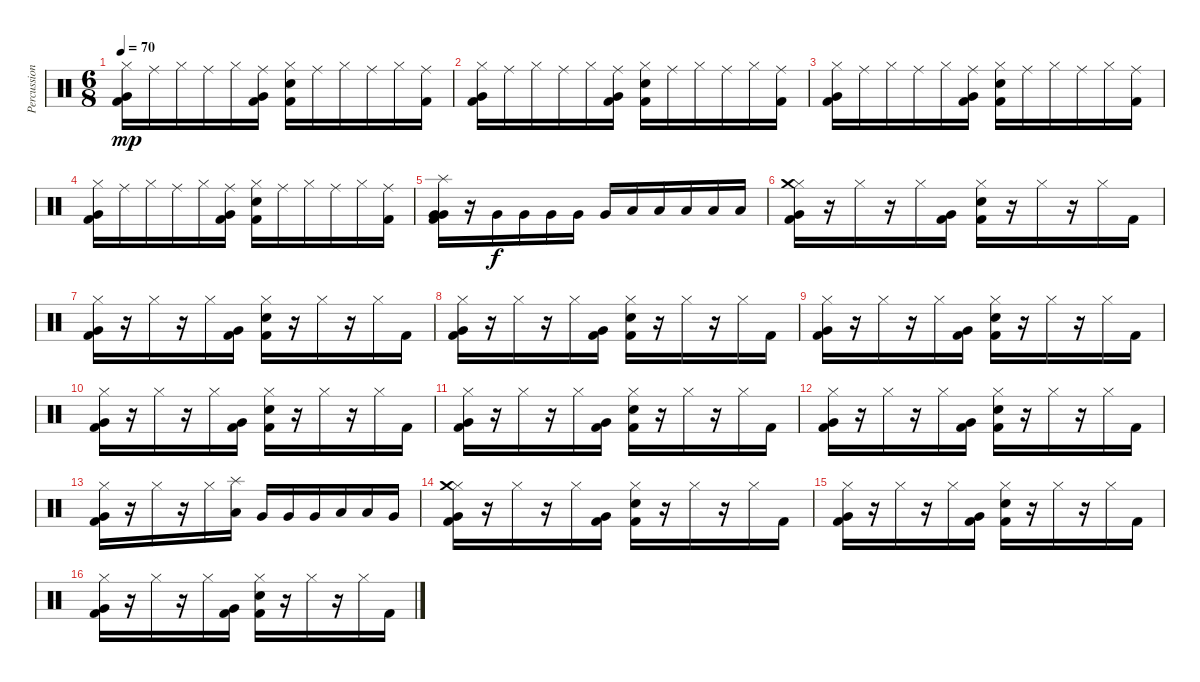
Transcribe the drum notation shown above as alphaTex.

\track ("Percussion" "Percussion") {instrument percussion}
\staff {score}
\articulation defaults
\ts (6 8)
\tempo 70
\clef neutral
\ks c
("Very Low Tom (hit)" "Hi-Hat (closed)" "Kick (hit) 2").16{dy mp} "Ride (middle)".16 "Hi-Hat (closed)".16 "Ride (middle)".16 "Hi-Hat (closed)".16 ("Ride (middle)" "Kick (hit) 2" "Very Low Tom (hit)").16 ("Hi-Hat (closed)" "Electric Snare (hit)" "Kick (hit) 2").16 "Ride (middle)".16 "Hi-Hat (closed)".16 "Ride (middle)".16 "Hi-Hat (closed)".16 ("Ride (middle)" "Kick (hit) 2").16 |
("Very Low Tom (hit)" "Hi-Hat (closed)" "Kick (hit) 2").16 "Ride (middle)".16 "Hi-Hat (closed)".16 "Ride (middle)".16 "Hi-Hat (closed)".16 ("Ride (middle)" "Kick (hit) 2" "Very Low Tom (hit)").16 ("Hi-Hat (closed)" "Electric Snare (hit)" "Kick (hit) 2").16 "Ride (middle)".16 "Hi-Hat (closed)".16 "Ride (middle)".16 "Hi-Hat (closed)".16 ("Ride (middle)" "Kick (hit) 2").16 |
("Very Low Tom (hit)" "Hi-Hat (closed)" "Kick (hit) 2").16 "Ride (middle)".16 "Hi-Hat (closed)".16 "Ride (middle)".16 "Hi-Hat (closed)".16 ("Ride (middle)" "Kick (hit) 2" "Very Low Tom (hit)").16 ("Hi-Hat (closed)" "Electric Snare (hit)" "Kick (hit) 2").16 "Ride (middle)".16 "Hi-Hat (closed)".16 "Ride (middle)".16 "Hi-Hat (closed)".16 ("Ride (middle)" "Kick (hit) 2").16 |
("Very Low Tom (hit)" "Hi-Hat (closed)" "Kick (hit) 2").16 "Ride (middle)".16 "Hi-Hat (closed)".16 "Ride (middle)".16 "Hi-Hat (closed)".16 ("Ride (middle)" "Kick (hit) 2" "Very Low Tom (hit)").16 ("Hi-Hat (closed)" "Electric Snare (hit)" "Kick (hit) 2").16 "Ride (middle)".16 "Hi-Hat (closed)".16 "Ride (middle)".16 "Hi-Hat (closed)".16 ("Ride (middle)" "Kick (hit) 2").16 |
("Very Low Tom (hit)" "Very Low Tom (hit)" "Splash (hit)" "Kick (hit) 2").16 r.16 "Very Low Tom (hit)".16{dy f} "Very Low Tom (hit)".16 "Very Low Tom (hit)".16 "Very Low Tom (hit)".16 "Very Low Tom (hit)".16 "Low Floor Tom (hit)".16 "Low Floor Tom (hit)".16 "Low Floor Tom (hit)".16 "Low Floor Tom (hit)".16 "Low Floor Tom (hit)".16 |
("Very Low Tom (hit)" "Hi-Hat (closed)" "Crash medium (hit)" "Kick (hit) 2").16 r.16 "Hi-Hat (closed)".16 r.16 "Hi-Hat (closed)".16 ("Kick (hit) 2" "Very Low Tom (hit)").16 ("Hi-Hat (closed)" "Electric Snare (hit)" "Kick (hit) 2").16 r.16 "Hi-Hat (closed)".16 r.16 "Hi-Hat (closed)".16 "Kick (hit) 2".16 |
("Very Low Tom (hit)" "Hi-Hat (closed)" "Kick (hit) 2").16 r.16 "Hi-Hat (closed)".16 r.16 "Hi-Hat (closed)".16 ("Kick (hit) 2" "Very Low Tom (hit)").16 ("Hi-Hat (closed)" "Electric Snare (hit)" "Kick (hit) 2").16 r.16 "Hi-Hat (closed)".16 r.16 "Hi-Hat (closed)".16 "Kick (hit) 2".16 |
("Very Low Tom (hit)" "Hi-Hat (closed)" "Kick (hit) 2").16 r.16 "Hi-Hat (closed)".16 r.16 "Hi-Hat (closed)".16 ("Kick (hit) 2" "Very Low Tom (hit)").16 ("Hi-Hat (closed)" "Electric Snare (hit)" "Kick (hit) 2").16 r.16 "Hi-Hat (closed)".16 r.16 "Hi-Hat (closed)".16 "Kick (hit) 2".16 |
("Very Low Tom (hit)" "Hi-Hat (closed)" "Kick (hit) 2").16 r.16 "Hi-Hat (closed)".16 r.16 "Hi-Hat (closed)".16 ("Kick (hit) 2" "Very Low Tom (hit)").16 ("Hi-Hat (closed)" "Electric Snare (hit)" "Kick (hit) 2").16 r.16 "Hi-Hat (closed)".16 r.16 "Hi-Hat (closed)".16 "Kick (hit) 2".16 |
("Very Low Tom (hit)" "Hi-Hat (closed)" "Kick (hit) 2").16 r.16 "Hi-Hat (closed)".16 r.16 "Hi-Hat (closed)".16 ("Kick (hit) 2" "Very Low Tom (hit)").16 ("Hi-Hat (closed)" "Electric Snare (hit)" "Kick (hit) 2").16 r.16 "Hi-Hat (closed)".16 r.16 "Hi-Hat (closed)".16 "Kick (hit) 2".16 |
("Very Low Tom (hit)" "Hi-Hat (closed)" "Kick (hit) 2").16 r.16 "Hi-Hat (closed)".16 r.16 "Hi-Hat (closed)".16 ("Kick (hit) 2" "Very Low Tom (hit)").16 ("Hi-Hat (closed)" "Electric Snare (hit)" "Kick (hit) 2").16 r.16 "Hi-Hat (closed)".16 r.16 "Hi-Hat (closed)".16 "Kick (hit) 2".16 |
("Very Low Tom (hit)" "Hi-Hat (closed)" "Kick (hit) 2").16 r.16 "Hi-Hat (closed)".16 r.16 "Hi-Hat (closed)".16 ("Kick (hit) 2" "Very Low Tom (hit)").16 ("Hi-Hat (closed)" "Electric Snare (hit)" "Kick (hit) 2").16 r.16 "Hi-Hat (closed)".16 r.16 "Hi-Hat (closed)".16 "Kick (hit) 2".16 |
("Very Low Tom (hit)" "Hi-Hat (closed)" "Kick (hit) 2").16 r.16 "Hi-Hat (closed)".16 r.16 "Hi-Hat (closed)".16 ("Splash (hit)" "Low Floor Tom (hit)").16 "Very Low Tom (hit)".16 "Very Low Tom (hit)".16 "Very Low Tom (hit)".16 "Low Floor Tom (hit)".16 "Low Floor Tom (hit)".16 "Very Low Tom (hit)".16 |
("Very Low Tom (hit)" "Hi-Hat (closed)" "Crash medium (hit)" "Kick (hit) 2").16 r.16 "Hi-Hat (closed)".16 r.16 "Hi-Hat (closed)".16 ("Kick (hit) 2" "Very Low Tom (hit)").16 ("Hi-Hat (closed)" "Electric Snare (hit)" "Kick (hit) 2").16 r.16 "Hi-Hat (closed)".16 r.16 "Hi-Hat (closed)".16 "Kick (hit) 2".16 |
("Very Low Tom (hit)" "Hi-Hat (closed)" "Kick (hit) 2").16 r.16 "Hi-Hat (closed)".16 r.16 "Hi-Hat (closed)".16 ("Kick (hit) 2" "Very Low Tom (hit)").16 ("Hi-Hat (closed)" "Electric Snare (hit)" "Kick (hit) 2").16 r.16 "Hi-Hat (closed)".16 r.16 "Hi-Hat (closed)".16 "Kick (hit) 2".16 |
("Very Low Tom (hit)" "Hi-Hat (closed)" "Kick (hit) 2").16 r.16 "Hi-Hat (closed)".16 r.16 "Hi-Hat (closed)".16 ("Kick (hit) 2" "Very Low Tom (hit)").16 ("Hi-Hat (closed)" "Electric Snare (hit)" "Kick (hit) 2").16 r.16 "Hi-Hat (closed)".16 r.16 "Hi-Hat (closed)".16 "Kick (hit) 2".16
